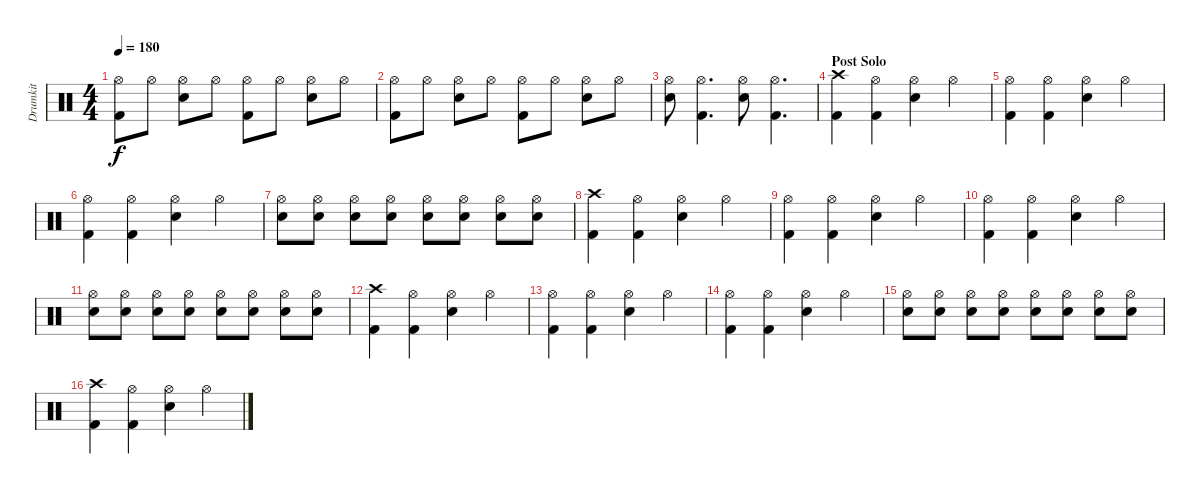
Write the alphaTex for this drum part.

\track ("Drumkit" "Drumkit") {instrument percussion}
\staff {score}
\articulation defaults
\ts (4 4)
\tempo 180
\clef neutral
\ks c
("Kick (hit) 2" "Hi-Hat (open)").8{dy f} "Hi-Hat (open)".8 ("Snare (hit) 2" "Hi-Hat (open)").8 "Hi-Hat (open)".8 ("Kick (hit) 2" "Hi-Hat (open)").8 "Hi-Hat (open)".8 ("Snare (hit) 2" "Hi-Hat (open)").8 "Hi-Hat (open)".8 |
("Kick (hit) 2" "Hi-Hat (open)").8 "Hi-Hat (open)".8 ("Snare (hit) 2" "Hi-Hat (open)").8 "Hi-Hat (open)".8 ("Kick (hit) 2" "Hi-Hat (open)").8 "Hi-Hat (open)".8 ("Snare (hit) 2" "Hi-Hat (open)").8 "Hi-Hat (open)".8 |
("Snare (hit) 2" "Hi-Hat (open)").8 ("Kick (hit) 2" "Hi-Hat (open)").4{d} ("Snare (hit) 2" "Hi-Hat (open)").8 ("Kick (hit) 2" "Hi-Hat (open)").4{d} |
\section ("" "Post Solo")
("Kick (hit) 2" "Crash high (hit)").4 ("Kick (hit) 2" "Hi-Hat (open)").4 ("Snare (hit) 2" "Hi-Hat (open)").4 "Hi-Hat (open)".4 |
("Kick (hit) 2" "Hi-Hat (open)").4 ("Kick (hit) 2" "Hi-Hat (open)").4 ("Snare (hit) 2" "Hi-Hat (open)").4 "Hi-Hat (open)".4 |
("Kick (hit) 2" "Hi-Hat (open)").4 ("Kick (hit) 2" "Hi-Hat (open)").4 ("Snare (hit) 2" "Hi-Hat (open)").4 "Hi-Hat (open)".4 |
("Snare (hit) 2" "Hi-Hat (open)").8 ("Snare (hit) 2" "Hi-Hat (open)").8 ("Snare (hit) 2" "Hi-Hat (open)").8 ("Snare (hit) 2" "Hi-Hat (open)").8 ("Snare (hit) 2" "Hi-Hat (open)").8 ("Snare (hit) 2" "Hi-Hat (open)").8 ("Snare (hit) 2" "Hi-Hat (open)").8 ("Snare (hit) 2" "Hi-Hat (open)").8 |
("Kick (hit) 2" "Crash high (hit)").4 ("Kick (hit) 2" "Hi-Hat (open)").4 ("Snare (hit) 2" "Hi-Hat (open)").4 "Hi-Hat (open)".4 |
("Kick (hit) 2" "Hi-Hat (open)").4 ("Kick (hit) 2" "Hi-Hat (open)").4 ("Snare (hit) 2" "Hi-Hat (open)").4 "Hi-Hat (open)".4 |
("Kick (hit) 2" "Hi-Hat (open)").4 ("Kick (hit) 2" "Hi-Hat (open)").4 ("Snare (hit) 2" "Hi-Hat (open)").4 "Hi-Hat (open)".4 |
("Snare (hit) 2" "Hi-Hat (open)").8 ("Snare (hit) 2" "Hi-Hat (open)").8 ("Snare (hit) 2" "Hi-Hat (open)").8 ("Snare (hit) 2" "Hi-Hat (open)").8 ("Snare (hit) 2" "Hi-Hat (open)").8 ("Snare (hit) 2" "Hi-Hat (open)").8 ("Snare (hit) 2" "Hi-Hat (open)").8 ("Snare (hit) 2" "Hi-Hat (open)").8 |
("Kick (hit) 2" "Crash high (hit)").4 ("Kick (hit) 2" "Hi-Hat (open)").4 ("Snare (hit) 2" "Hi-Hat (open)").4 "Hi-Hat (open)".4 |
("Kick (hit) 2" "Hi-Hat (open)").4 ("Kick (hit) 2" "Hi-Hat (open)").4 ("Snare (hit) 2" "Hi-Hat (open)").4 "Hi-Hat (open)".4 |
("Kick (hit) 2" "Hi-Hat (open)").4 ("Kick (hit) 2" "Hi-Hat (open)").4 ("Snare (hit) 2" "Hi-Hat (open)").4 "Hi-Hat (open)".4 |
("Snare (hit) 2" "Hi-Hat (open)").8 ("Snare (hit) 2" "Hi-Hat (open)").8 ("Snare (hit) 2" "Hi-Hat (open)").8 ("Snare (hit) 2" "Hi-Hat (open)").8 ("Snare (hit) 2" "Hi-Hat (open)").8 ("Snare (hit) 2" "Hi-Hat (open)").8 ("Snare (hit) 2" "Hi-Hat (open)").8 ("Snare (hit) 2" "Hi-Hat (open)").8 |
("Kick (hit) 2" "Crash high (hit)").4 ("Kick (hit) 2" "Hi-Hat (open)").4 ("Snare (hit) 2" "Hi-Hat (open)").4 "Hi-Hat (open)".4
